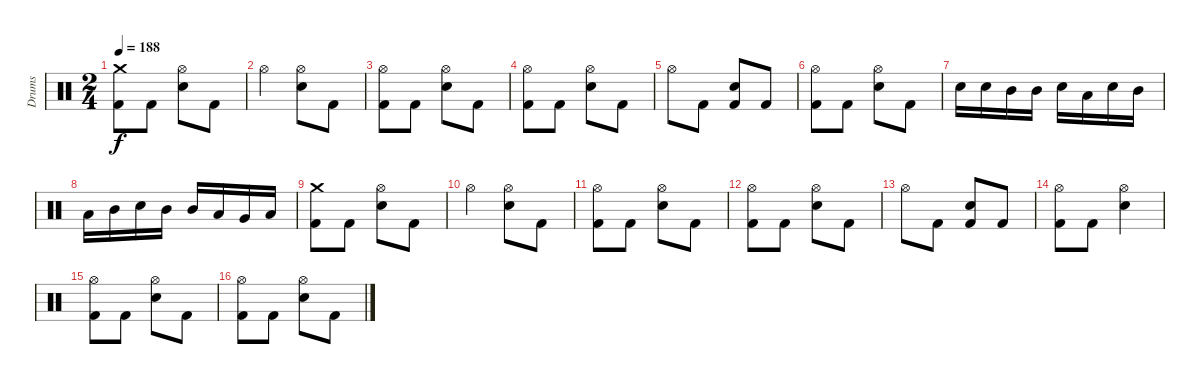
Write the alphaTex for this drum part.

\track ("Drums" "Drums") {instrument percussion}
\staff {score}
\articulation defaults
\ts (2 4)
\tempo 188
\clef neutral
\ks c
("Crash medium (hit)" "Kick (hit) 2").8{dy f} "Kick (hit) 2".8 ("Electric Snare (hit)" "Hi-Hat (open)").8 "Kick (hit) 2".8 |
"Hi-Hat (open)".4 ("Electric Snare (hit)" "Hi-Hat (open)").8 "Kick (hit) 2".8 |
("Hi-Hat (open)" "Kick (hit) 2").8 "Kick (hit) 2".8 ("Electric Snare (hit)" "Hi-Hat (open)").8 "Kick (hit) 2".8 |
("Hi-Hat (open)" "Kick (hit) 2").8 "Kick (hit) 2".8 ("Electric Snare (hit)" "Hi-Hat (open)").8 "Kick (hit) 2".8 |
"Hi-Hat (open)".8 "Kick (hit) 2".8 ("Electric Snare (hit)" "Kick (hit) 2").8 "Kick (hit) 2".8 |
("Hi-Hat (open)" "Kick (hit) 2").8 "Kick (hit) 2".8 ("Electric Snare (hit)" "Hi-Hat (open)").8 "Kick (hit) 2".8 |
"Electric Snare (hit)".16 "Electric Snare (hit)".16 "Mid Tom (hit)".16 "Mid Tom (hit)".16 "Electric Snare (hit)".16 "Low Tom (hit)".16 "Electric Snare (hit)".16 "Mid Tom (hit)".16 |
"Low Tom (hit)".16 "Mid Tom (hit)".16 "Electric Snare (hit)".16 "Mid Tom (hit)".16 "Mid Tom (hit)".16 "Low Tom (hit)".16 "Very Low Tom (hit)".16 "Low Floor Tom (hit)".16 |
("Crash medium (hit)" "Kick (hit) 2").8 "Kick (hit) 2".8 ("Electric Snare (hit)" "Hi-Hat (open)").8 "Kick (hit) 2".8 |
"Hi-Hat (open)".4 ("Electric Snare (hit)" "Hi-Hat (open)").8 "Kick (hit) 2".8 |
("Hi-Hat (open)" "Kick (hit) 2").8 "Kick (hit) 2".8 ("Electric Snare (hit)" "Hi-Hat (open)").8 "Kick (hit) 2".8 |
("Hi-Hat (open)" "Kick (hit) 2").8 "Kick (hit) 2".8 ("Electric Snare (hit)" "Hi-Hat (open)").8 "Kick (hit) 2".8 |
"Hi-Hat (open)".8 "Kick (hit) 2".8 ("Electric Snare (hit)" "Kick (hit) 2").8 "Kick (hit) 2".8 |
("Hi-Hat (open)" "Kick (hit) 2").8 "Kick (hit) 2".8 ("Electric Snare (hit)" "Hi-Hat (open)").4 |
("Hi-Hat (open)" "Kick (hit) 2").8 "Kick (hit) 2".8 ("Electric Snare (hit)" "Hi-Hat (open)").8 "Kick (hit) 2".8 |
("Hi-Hat (open)" "Kick (hit) 2").8 "Kick (hit) 2".8 ("Electric Snare (hit)" "Hi-Hat (open)").8 "Kick (hit) 2".8
